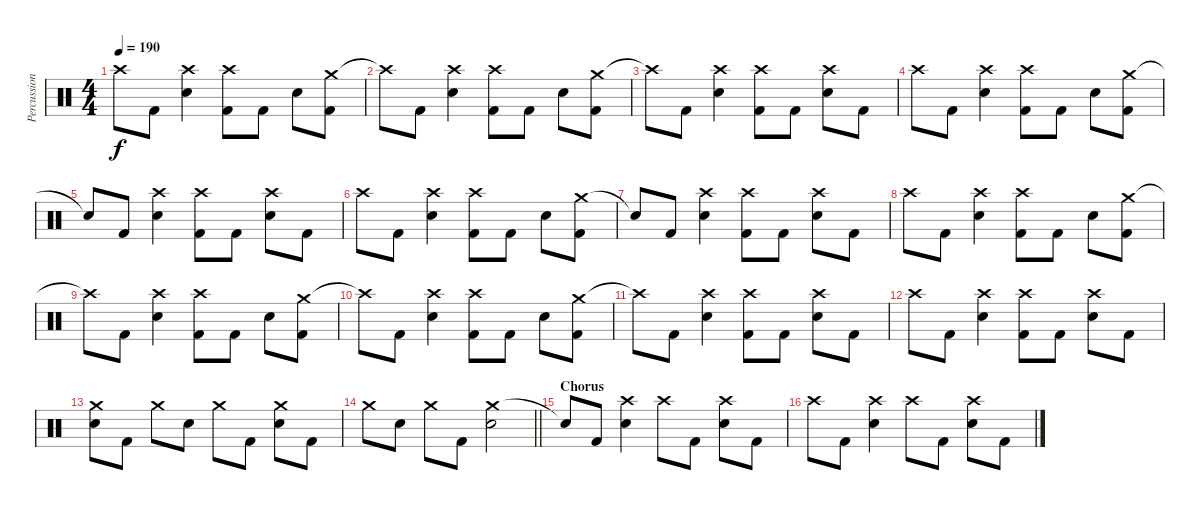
\track ("Percussion" "Percussion") {instrument percussion}
\staff {score}
\articulation defaults
\ts (4 4)
\tempo 190
\clef neutral
\ks c "Crash high (hit)"{t}.8{dy f} "Kick (hit) 2".8
("Crash high (hit)" "Electric Snare (hit)").4 ("Crash high (hit)" "Kick (hit) 2").8 "Kick (hit) 2".8 "Electric Snare (hit)".8 ("Crash medium (hit)" "Kick (hit) 2").8 |
"Crash high (hit)"{t}.8 "Kick (hit) 2".8 ("Crash high (hit)" "Electric Snare (hit)").4 ("Crash high (hit)" "Kick (hit) 2").8 "Kick (hit) 2".8 "Electric Snare (hit)".8 ("Crash medium (hit)" "Kick (hit) 2").8 |
"Crash high (hit)"{t}.8 "Kick (hit) 2".8 ("Crash high (hit)" "Electric Snare (hit)").4 ("Crash high (hit)" "Kick (hit) 2").8 "Kick (hit) 2".8 ("Crash high (hit)" "Electric Snare (hit)").8 "Kick (hit) 2".8 |
"Crash high (hit)".8 "Kick (hit) 2".8 ("Crash high (hit)" "Electric Snare (hit)").4 ("Crash high (hit)" "Kick (hit) 2").8 "Kick (hit) 2".8 "Electric Snare (hit)".8 ("Crash medium (hit)" "Kick (hit) 2").8 |
"Snare (hit)"{t}.8 "Kick (hit) 2".8 ("Crash high (hit)" "Electric Snare (hit)").4 ("Crash high (hit)" "Kick (hit) 2").8 "Kick (hit) 2".8 ("Crash high (hit)" "Electric Snare (hit)").8 "Kick (hit) 2".8 |
"Crash high (hit)".8 "Kick (hit) 2".8 ("Crash high (hit)" "Electric Snare (hit)").4 ("Crash high (hit)" "Kick (hit) 2").8 "Kick (hit) 2".8 "Electric Snare (hit)".8 ("Crash medium (hit)" "Kick (hit) 2").8 |
"Snare (hit)"{t}.8 "Kick (hit) 2".8 ("Crash high (hit)" "Electric Snare (hit)").4 ("Crash high (hit)" "Kick (hit) 2").8 "Kick (hit) 2".8 ("Crash high (hit)" "Electric Snare (hit)").8 "Kick (hit) 2".8 |
"Crash high (hit)".8 "Kick (hit) 2".8 ("Crash high (hit)" "Electric Snare (hit)").4 ("Crash high (hit)" "Kick (hit) 2").8 "Kick (hit) 2".8 "Electric Snare (hit)".8 ("Crash medium (hit)" "Kick (hit) 2").8 |
"Crash high (hit)"{t}.8 "Kick (hit) 2".8 ("Crash high (hit)" "Electric Snare (hit)").4 ("Crash high (hit)" "Kick (hit) 2").8 "Kick (hit) 2".8 "Electric Snare (hit)".8 ("Crash medium (hit)" "Kick (hit) 2").8 |
"Crash high (hit)"{t}.8 "Kick (hit) 2".8 ("Crash high (hit)" "Electric Snare (hit)").4 ("Crash high (hit)" "Kick (hit) 2").8 "Kick (hit) 2".8 "Electric Snare (hit)".8 ("Crash medium (hit)" "Kick (hit) 2").8 |
"Crash high (hit)"{t}.8 "Kick (hit) 2".8 ("Crash high (hit)" "Electric Snare (hit)").4 ("Crash high (hit)" "Kick (hit) 2").8 "Kick (hit) 2".8 ("Crash high (hit)" "Electric Snare (hit)").8 "Kick (hit) 2".8 |
"Crash high (hit)".8 "Kick (hit) 2".8 ("Crash high (hit)" "Electric Snare (hit)").4 ("Crash high (hit)" "Kick (hit) 2").8 "Kick (hit) 2".8 ("Crash high (hit)" "Electric Snare (hit)").8 "Kick (hit) 2".8 |
("Crash medium (hit)" "Electric Snare (hit)").8 "Kick (hit) 2".8 "Crash medium (hit)".8 "Electric Snare (hit)".8 "Crash medium (hit)".8 "Kick (hit) 2".8 ("Crash medium (hit)" "Electric Snare (hit)").8 "Kick (hit) 2".8 |
\barLineRight lightlight "Crash medium (hit)".8 "Electric Snare (hit)".8 "Crash medium (hit)".8 "Kick (hit) 2".8
("Crash medium (hit)" "Electric Snare (hit)").2 |
\section ("" "Chorus")
"Snare (hit)"{t}.8 "Kick (hit) 2".8 ("Crash high (hit)" "Electric Snare (hit)").4 "Crash high (hit)".8 "Kick (hit) 2".8 ("Crash high (hit)" "Electric Snare (hit)").8 "Kick (hit) 2".8 |
"Crash high (hit)".8 "Kick (hit) 2".8 ("Crash high (hit)" "Electric Snare (hit)").4 "Crash high (hit)".8 "Kick (hit) 2".8 ("Crash high (hit)" "Electric Snare (hit)").8 "Kick (hit) 2".8
